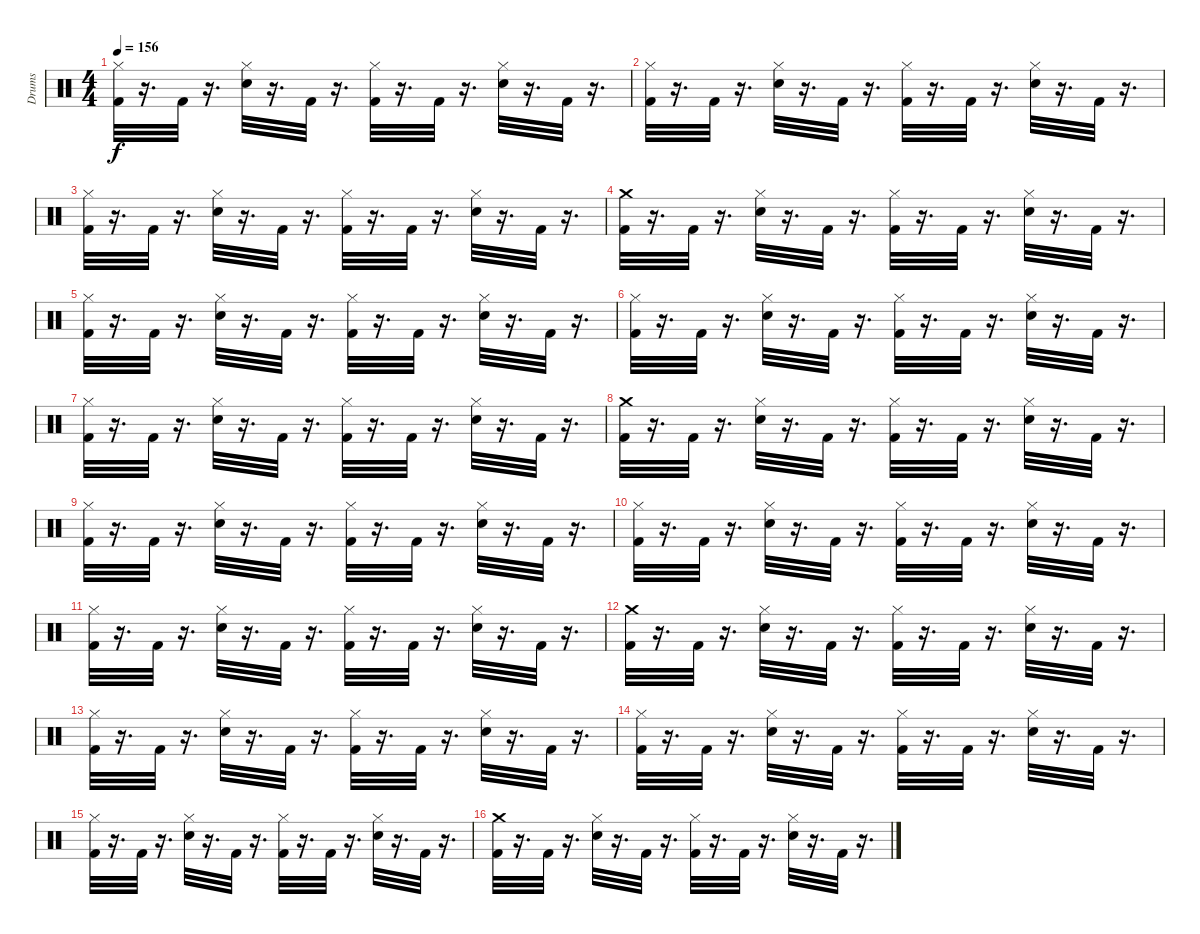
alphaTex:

\track ("Drums" "Drums") {instrument percussion}
\staff {score}
\articulation defaults
\ts (4 4)
\tempo 156
\clef neutral
\ks c
("Kick (hit) 2" "Hi-Hat (closed)").32{dy f} r.16{d} "Kick (hit) 2".32 r.16{d} ("Hi-Hat (closed)" "Snare (hit) 2").32 r.16{d} "Kick (hit) 2".32 r.16{d} ("Hi-Hat (closed)" "Kick (hit) 2").32 r.16{d} "Kick (hit) 2".32 r.16{d} ("Snare (hit) 2" "Hi-Hat (closed)").32 r.16{d} "Kick (hit) 2".32 r.16{d} |
("Kick (hit) 2" "Hi-Hat (closed)").32 r.16{d} "Kick (hit) 2".32 r.16{d} ("Hi-Hat (closed)" "Snare (hit) 2").32 r.16{d} "Kick (hit) 2".32 r.16{d} ("Kick (hit) 2" "Hi-Hat (closed)").32 r.16{d} "Kick (hit) 2".32 r.16{d} ("Hi-Hat (closed)" "Snare (hit) 2").32 r.16{d} "Kick (hit) 2".32 r.16{d} |
("Hi-Hat (closed)" "Kick (hit) 2").32 r.16{d} "Kick (hit) 2".32 r.16{d} ("Snare (hit) 2" "Hi-Hat (closed)").32 r.16{d} "Kick (hit) 2".32 r.16{d} ("Kick (hit) 2" "Hi-Hat (closed)").32 r.16{d} "Kick (hit) 2".32 r.16{d} ("Hi-Hat (closed)" "Snare (hit) 2").32 r.16{d} "Kick (hit) 2".32 r.16{d} |
("Crash medium (hit)" "Kick (hit) 2").32 r.16{d} "Kick (hit) 2".32 r.16{d} ("Snare (hit) 2" "Hi-Hat (closed)").32 r.16{d} "Kick (hit) 2".32 r.16{d} ("Hi-Hat (closed)" "Kick (hit) 2").32 r.16{d} "Kick (hit) 2".32 r.16{d} ("Snare (hit) 2" "Hi-Hat (closed)").32 r.16{d} "Kick (hit) 2".32 r.16{d} |
("Kick (hit) 2" "Hi-Hat (closed)").32 r.16{d} "Kick (hit) 2".32 r.16{d} ("Hi-Hat (closed)" "Snare (hit) 2").32 r.16{d} "Kick (hit) 2".32 r.16{d} ("Hi-Hat (closed)" "Kick (hit) 2").32 r.16{d} "Kick (hit) 2".32 r.16{d} ("Snare (hit) 2" "Hi-Hat (closed)").32 r.16{d} "Kick (hit) 2".32 r.16{d} |
("Kick (hit) 2" "Hi-Hat (closed)").32 r.16{d} "Kick (hit) 2".32 r.16{d} ("Hi-Hat (closed)" "Snare (hit) 2").32 r.16{d} "Kick (hit) 2".32 r.16{d} ("Kick (hit) 2" "Hi-Hat (closed)").32 r.16{d} "Kick (hit) 2".32 r.16{d} ("Hi-Hat (closed)" "Snare (hit) 2").32 r.16{d} "Kick (hit) 2".32 r.16{d} |
("Hi-Hat (closed)" "Kick (hit) 2").32 r.16{d} "Kick (hit) 2".32 r.16{d} ("Snare (hit) 2" "Hi-Hat (closed)").32 r.16{d} "Kick (hit) 2".32 r.16{d} ("Kick (hit) 2" "Hi-Hat (closed)").32 r.16{d} "Kick (hit) 2".32 r.16{d} ("Hi-Hat (closed)" "Snare (hit) 2").32 r.16{d} "Kick (hit) 2".32 r.16{d} |
("Crash medium (hit)" "Kick (hit) 2").32 r.16{d} "Kick (hit) 2".32 r.16{d} ("Snare (hit) 2" "Hi-Hat (closed)").32 r.16{d} "Kick (hit) 2".32 r.16{d} ("Hi-Hat (closed)" "Kick (hit) 2").32 r.16{d} "Kick (hit) 2".32 r.16{d} ("Snare (hit) 2" "Hi-Hat (closed)").32 r.16{d} "Kick (hit) 2".32 r.16{d} |
("Kick (hit) 2" "Hi-Hat (closed)").32 r.16{d} "Kick (hit) 2".32 r.16{d} ("Hi-Hat (closed)" "Snare (hit) 2").32 r.16{d} "Kick (hit) 2".32 r.16{d} ("Hi-Hat (closed)" "Kick (hit) 2").32 r.16{d} "Kick (hit) 2".32 r.16{d} ("Snare (hit) 2" "Hi-Hat (closed)").32 r.16{d} "Kick (hit) 2".32 r.16{d} |
("Kick (hit) 2" "Hi-Hat (closed)").32 r.16{d} "Kick (hit) 2".32 r.16{d} ("Hi-Hat (closed)" "Snare (hit) 2").32 r.16{d} "Kick (hit) 2".32 r.16{d} ("Kick (hit) 2" "Hi-Hat (closed)").32 r.16{d} "Kick (hit) 2".32 r.16{d} ("Hi-Hat (closed)" "Snare (hit) 2").32 r.16{d} "Kick (hit) 2".32 r.16{d} |
("Hi-Hat (closed)" "Kick (hit) 2").32 r.16{d} "Kick (hit) 2".32 r.16{d} ("Snare (hit) 2" "Hi-Hat (closed)").32 r.16{d} "Kick (hit) 2".32 r.16{d} ("Kick (hit) 2" "Hi-Hat (closed)").32 r.16{d} "Kick (hit) 2".32 r.16{d} ("Hi-Hat (closed)" "Snare (hit) 2").32 r.16{d} "Kick (hit) 2".32 r.16{d} |
("Crash medium (hit)" "Kick (hit) 2").32 r.16{d} "Kick (hit) 2".32 r.16{d} ("Snare (hit) 2" "Hi-Hat (closed)").32 r.16{d} "Kick (hit) 2".32 r.16{d} ("Hi-Hat (closed)" "Kick (hit) 2").32 r.16{d} "Kick (hit) 2".32 r.16{d} ("Snare (hit) 2" "Hi-Hat (closed)").32 r.16{d} "Kick (hit) 2".32 r.16{d} |
("Kick (hit) 2" "Hi-Hat (closed)").32 r.16{d} "Kick (hit) 2".32 r.16{d} ("Hi-Hat (closed)" "Snare (hit) 2").32 r.16{d} "Kick (hit) 2".32 r.16{d} ("Hi-Hat (closed)" "Kick (hit) 2").32 r.16{d} "Kick (hit) 2".32 r.16{d} ("Snare (hit) 2" "Hi-Hat (closed)").32 r.16{d} "Kick (hit) 2".32 r.16{d} |
("Kick (hit) 2" "Hi-Hat (closed)").32 r.16{d} "Kick (hit) 2".32 r.16{d} ("Hi-Hat (closed)" "Snare (hit) 2").32 r.16{d} "Kick (hit) 2".32 r.16{d} ("Kick (hit) 2" "Hi-Hat (closed)").32 r.16{d} "Kick (hit) 2".32 r.16{d} ("Hi-Hat (closed)" "Snare (hit) 2").32 r.16{d} "Kick (hit) 2".32 r.16{d} |
("Hi-Hat (closed)" "Kick (hit) 2").32 r.16{d} "Kick (hit) 2".32 r.16{d} ("Snare (hit) 2" "Hi-Hat (closed)").32 r.16{d} "Kick (hit) 2".32 r.16{d} ("Kick (hit) 2" "Hi-Hat (closed)").32 r.16{d} "Kick (hit) 2".32 r.16{d} ("Hi-Hat (closed)" "Snare (hit) 2").32 r.16{d} "Kick (hit) 2".32 r.16{d} |
("Crash medium (hit)" "Kick (hit) 2").32 r.16{d} "Kick (hit) 2".32 r.16{d} ("Snare (hit) 2" "Hi-Hat (closed)").32 r.16{d} "Kick (hit) 2".32 r.16{d} ("Hi-Hat (closed)" "Kick (hit) 2").32 r.16{d} "Kick (hit) 2".32 r.16{d} ("Snare (hit) 2" "Hi-Hat (closed)").32 r.16{d} "Kick (hit) 2".32 r.16{d}
